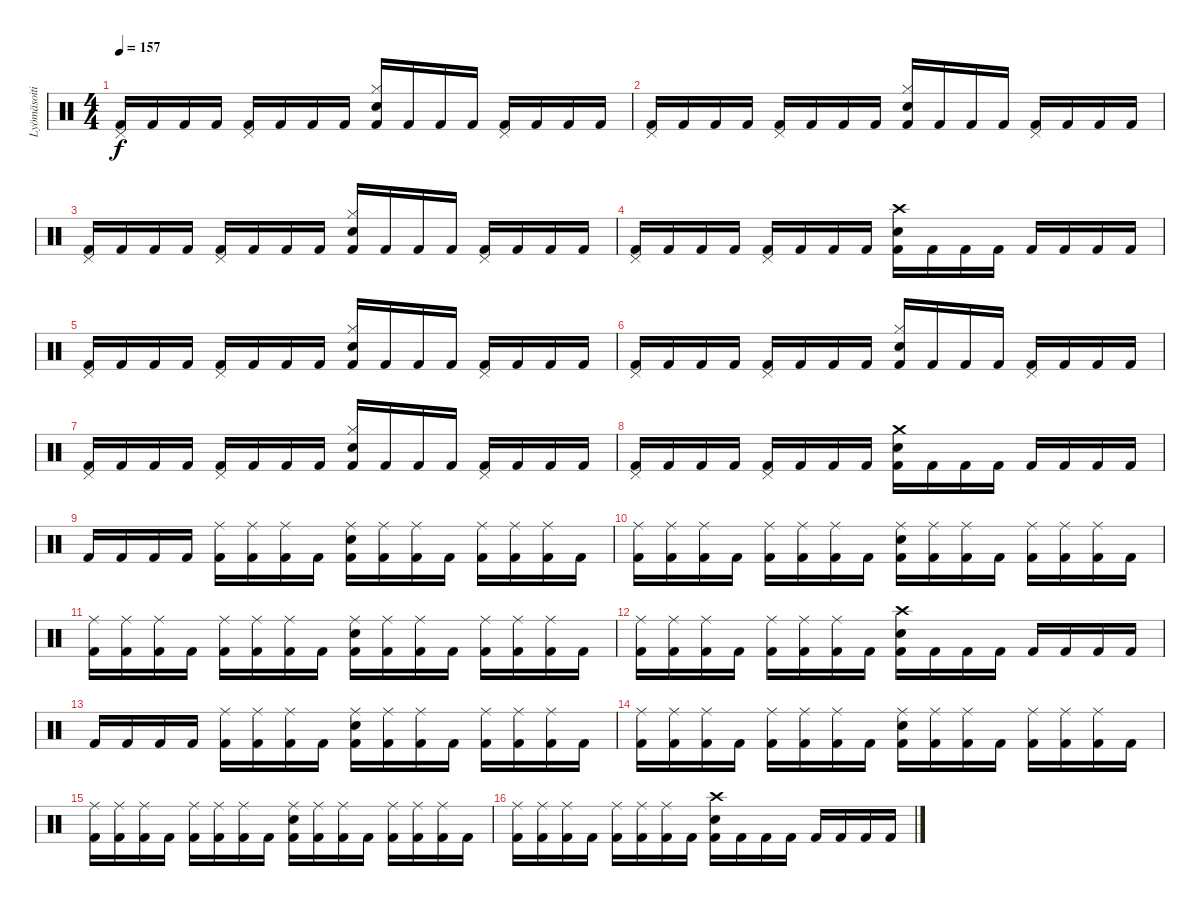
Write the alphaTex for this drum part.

\track ("Lyömäsoitin" "Lyömäsoiti") {instrument percussion}
\staff {score}
\articulation defaults
\ts (4 4)
\tempo 157
\clef neutral
\ks c
("Pedal Hi-Hat (hit)" "Kick (hit) 2").16{dy f} "Kick (hit) 2".16 "Kick (hit) 2".16 "Kick (hit) 2".16 ("Pedal Hi-Hat (hit)" "Kick (hit) 2").16 "Kick (hit) 2".16 "Kick (hit) 2".16 "Kick (hit) 2".16 ("Hi-Hat (closed)" "Electric Snare (hit)" "Kick (hit) 2").16 "Kick (hit) 2".16 "Kick (hit) 2".16 "Kick (hit) 2".16 ("Pedal Hi-Hat (hit)" "Kick (hit) 2").16 "Kick (hit) 2".16 "Kick (hit) 2".16 "Kick (hit) 2".16 |
("Pedal Hi-Hat (hit)" "Kick (hit) 2").16 "Kick (hit) 2".16 "Kick (hit) 2".16 "Kick (hit) 2".16 ("Pedal Hi-Hat (hit)" "Kick (hit) 2").16 "Kick (hit) 2".16 "Kick (hit) 2".16 "Kick (hit) 2".16 ("Hi-Hat (closed)" "Electric Snare (hit)" "Kick (hit) 2").16 "Kick (hit) 2".16 "Kick (hit) 2".16 "Kick (hit) 2".16 ("Pedal Hi-Hat (hit)" "Kick (hit) 2").16 "Kick (hit) 2".16 "Kick (hit) 2".16 "Kick (hit) 2".16 |
("Pedal Hi-Hat (hit)" "Kick (hit) 2").16 "Kick (hit) 2".16 "Kick (hit) 2".16 "Kick (hit) 2".16 ("Pedal Hi-Hat (hit)" "Kick (hit) 2").16 "Kick (hit) 2".16 "Kick (hit) 2".16 "Kick (hit) 2".16 ("Hi-Hat (closed)" "Electric Snare (hit)" "Kick (hit) 2").16 "Kick (hit) 2".16 "Kick (hit) 2".16 "Kick (hit) 2".16 ("Pedal Hi-Hat (hit)" "Kick (hit) 2").16 "Kick (hit) 2".16 "Kick (hit) 2".16 "Kick (hit) 2".16 |
("Pedal Hi-Hat (hit)" "Kick (hit) 2").16 "Kick (hit) 2".16 "Kick (hit) 2".16 "Kick (hit) 2".16 ("Pedal Hi-Hat (hit)" "Kick (hit) 2").16 "Kick (hit) 2".16 "Kick (hit) 2".16 "Kick (hit) 2".16 ("Crash high (hit)" "Electric Snare (hit)" "Kick (hit) 2").16 "Kick (hit) 2".16 "Kick (hit) 2".16 "Kick (hit) 2".16 "Kick (hit) 2".16 "Kick (hit) 2".16 "Kick (hit) 2".16 "Kick (hit) 2".16 |
("Pedal Hi-Hat (hit)" "Kick (hit) 2").16 "Kick (hit) 2".16 "Kick (hit) 2".16 "Kick (hit) 2".16 ("Pedal Hi-Hat (hit)" "Kick (hit) 2").16 "Kick (hit) 2".16 "Kick (hit) 2".16 "Kick (hit) 2".16 ("Hi-Hat (closed)" "Electric Snare (hit)" "Kick (hit) 2").16 "Kick (hit) 2".16 "Kick (hit) 2".16 "Kick (hit) 2".16 ("Pedal Hi-Hat (hit)" "Kick (hit) 2").16 "Kick (hit) 2".16 "Kick (hit) 2".16 "Kick (hit) 2".16 |
("Pedal Hi-Hat (hit)" "Kick (hit) 2").16 "Kick (hit) 2".16 "Kick (hit) 2".16 "Kick (hit) 2".16 ("Pedal Hi-Hat (hit)" "Kick (hit) 2").16 "Kick (hit) 2".16 "Kick (hit) 2".16 "Kick (hit) 2".16 ("Hi-Hat (closed)" "Electric Snare (hit)" "Kick (hit) 2").16 "Kick (hit) 2".16 "Kick (hit) 2".16 "Kick (hit) 2".16 ("Pedal Hi-Hat (hit)" "Kick (hit) 2").16 "Kick (hit) 2".16 "Kick (hit) 2".16 "Kick (hit) 2".16 |
("Pedal Hi-Hat (hit)" "Kick (hit) 2").16 "Kick (hit) 2".16 "Kick (hit) 2".16 "Kick (hit) 2".16 ("Pedal Hi-Hat (hit)" "Kick (hit) 2").16 "Kick (hit) 2".16 "Kick (hit) 2".16 "Kick (hit) 2".16 ("Hi-Hat (closed)" "Electric Snare (hit)" "Kick (hit) 2").16 "Kick (hit) 2".16 "Kick (hit) 2".16 "Kick (hit) 2".16 ("Pedal Hi-Hat (hit)" "Kick (hit) 2").16 "Kick (hit) 2".16 "Kick (hit) 2".16 "Kick (hit) 2".16 |
("Pedal Hi-Hat (hit)" "Kick (hit) 2").16 "Kick (hit) 2".16 "Kick (hit) 2".16 "Kick (hit) 2".16 ("Pedal Hi-Hat (hit)" "Kick (hit) 2").16 "Kick (hit) 2".16 "Kick (hit) 2".16 "Kick (hit) 2".16 ("Crash medium (hit)" "Electric Snare (hit)" "Kick (hit) 2").16 "Kick (hit) 2".16 "Kick (hit) 2".16 "Kick (hit) 2".16 "Kick (hit) 2".16 "Kick (hit) 2".16 "Kick (hit) 2".16 "Kick (hit) 2".16 |
"Kick (hit) 2".16 "Kick (hit) 2".16 "Kick (hit) 2".16 "Kick (hit) 2".16 ("Ride (middle)" "Kick (hit) 2").16 ("Ride (middle)" "Kick (hit) 2").16 ("Ride (middle)" "Kick (hit) 2").16 "Kick (hit) 2".16 ("Ride (middle)" "Electric Snare (hit)" "Kick (hit) 2").16 ("Ride (middle)" "Kick (hit) 2").16 ("Ride (middle)" "Kick (hit) 2").16 "Kick (hit) 2".16 ("Ride (middle)" "Kick (hit) 2").16 ("Ride (middle)" "Kick (hit) 2").16 ("Ride (middle)" "Kick (hit) 2").16 "Kick (hit) 2".16 |
("Ride (middle)" "Kick (hit) 2").16 ("Ride (middle)" "Kick (hit) 2").16 ("Ride (middle)" "Kick (hit) 2").16 "Kick (hit) 2".16 ("Ride (middle)" "Kick (hit) 2").16 ("Ride (middle)" "Kick (hit) 2").16 ("Ride (middle)" "Kick (hit) 2").16 "Kick (hit) 2".16 ("Ride (middle)" "Electric Snare (hit)" "Kick (hit) 2").16 ("Ride (middle)" "Kick (hit) 2").16 ("Ride (middle)" "Kick (hit) 2").16 "Kick (hit) 2".16 ("Ride (middle)" "Kick (hit) 2").16 ("Ride (middle)" "Kick (hit) 2").16 ("Ride (middle)" "Kick (hit) 2").16 "Kick (hit) 2".16 |
("Ride (middle)" "Kick (hit) 2").16 ("Ride (middle)" "Kick (hit) 2").16 ("Ride (middle)" "Kick (hit) 2").16 "Kick (hit) 2".16 ("Ride (middle)" "Kick (hit) 2").16 ("Ride (middle)" "Kick (hit) 2").16 ("Ride (middle)" "Kick (hit) 2").16 "Kick (hit) 2".16 ("Ride (middle)" "Electric Snare (hit)" "Kick (hit) 2").16 ("Ride (middle)" "Kick (hit) 2").16 ("Ride (middle)" "Kick (hit) 2").16 "Kick (hit) 2".16 ("Ride (middle)" "Kick (hit) 2").16 ("Ride (middle)" "Kick (hit) 2").16 ("Ride (middle)" "Kick (hit) 2").16 "Kick (hit) 2".16 |
("Ride (middle)" "Kick (hit) 2").16 ("Ride (middle)" "Kick (hit) 2").16 ("Ride (middle)" "Kick (hit) 2").16 "Kick (hit) 2".16 ("Ride (middle)" "Kick (hit) 2").16 ("Ride (middle)" "Kick (hit) 2").16 ("Ride (middle)" "Kick (hit) 2").16 "Kick (hit) 2".16 ("Crash high (hit)" "Electric Snare (hit)" "Kick (hit) 2").16 "Kick (hit) 2".16 "Kick (hit) 2".16 "Kick (hit) 2".16 "Kick (hit) 2".16 "Kick (hit) 2".16 "Kick (hit) 2".16 "Kick (hit) 2".16 |
"Kick (hit) 2".16 "Kick (hit) 2".16 "Kick (hit) 2".16 "Kick (hit) 2".16 ("Ride (middle)" "Kick (hit) 2").16 ("Ride (middle)" "Kick (hit) 2").16 ("Ride (middle)" "Kick (hit) 2").16 "Kick (hit) 2".16 ("Ride (middle)" "Electric Snare (hit)" "Kick (hit) 2").16 ("Ride (middle)" "Kick (hit) 2").16 ("Ride (middle)" "Kick (hit) 2").16 "Kick (hit) 2".16 ("Ride (middle)" "Kick (hit) 2").16 ("Ride (middle)" "Kick (hit) 2").16 ("Ride (middle)" "Kick (hit) 2").16 "Kick (hit) 2".16 |
("Ride (middle)" "Kick (hit) 2").16 ("Ride (middle)" "Kick (hit) 2").16 ("Ride (middle)" "Kick (hit) 2").16 "Kick (hit) 2".16 ("Ride (middle)" "Kick (hit) 2").16 ("Ride (middle)" "Kick (hit) 2").16 ("Ride (middle)" "Kick (hit) 2").16 "Kick (hit) 2".16 ("Ride (middle)" "Electric Snare (hit)" "Kick (hit) 2").16 ("Ride (middle)" "Kick (hit) 2").16 ("Ride (middle)" "Kick (hit) 2").16 "Kick (hit) 2".16 ("Ride (middle)" "Kick (hit) 2").16 ("Ride (middle)" "Kick (hit) 2").16 ("Ride (middle)" "Kick (hit) 2").16 "Kick (hit) 2".16 |
("Ride (middle)" "Kick (hit) 2").16 ("Ride (middle)" "Kick (hit) 2").16 ("Ride (middle)" "Kick (hit) 2").16 "Kick (hit) 2".16 ("Ride (middle)" "Kick (hit) 2").16 ("Ride (middle)" "Kick (hit) 2").16 ("Ride (middle)" "Kick (hit) 2").16 "Kick (hit) 2".16 ("Ride (middle)" "Electric Snare (hit)" "Kick (hit) 2").16 ("Ride (middle)" "Kick (hit) 2").16 ("Ride (middle)" "Kick (hit) 2").16 "Kick (hit) 2".16 ("Ride (middle)" "Kick (hit) 2").16 ("Ride (middle)" "Kick (hit) 2").16 ("Ride (middle)" "Kick (hit) 2").16 "Kick (hit) 2".16 |
("Ride (middle)" "Kick (hit) 2").16 ("Ride (middle)" "Kick (hit) 2").16 ("Ride (middle)" "Kick (hit) 2").16 "Kick (hit) 2".16 ("Ride (middle)" "Kick (hit) 2").16 ("Ride (middle)" "Kick (hit) 2").16 ("Ride (middle)" "Kick (hit) 2").16 "Kick (hit) 2".16 ("Crash high (hit)" "Electric Snare (hit)" "Kick (hit) 2").16 "Kick (hit) 2".16 "Kick (hit) 2".16 "Kick (hit) 2".16 "Kick (hit) 2".16 "Kick (hit) 2".16 "Kick (hit) 2".16 "Kick (hit) 2".16
